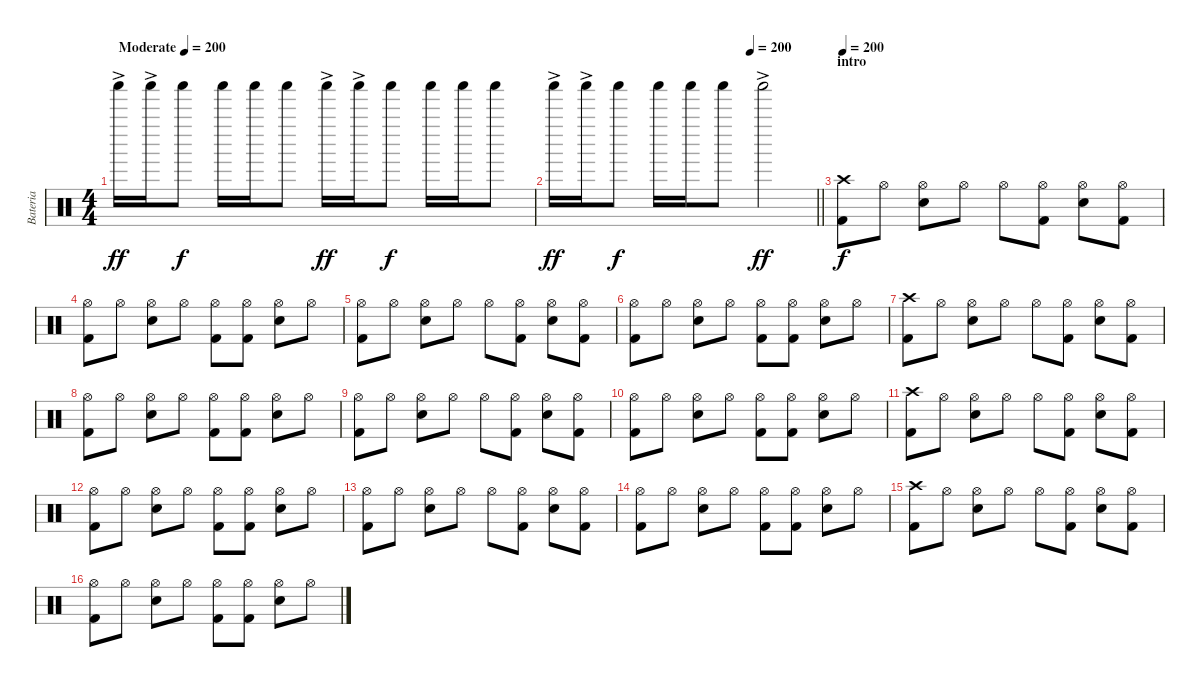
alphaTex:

\track ("Bateria" "Bateria") {instrument percussion}
\staff {score}
\articulation defaults
\ts (4 4)
\tempo (200 "Moderate")
\tempo 100
\tempo (200 "Moderate")
\clef neutral
\ks c "Shaker (hit)"{ac}.16{dy ff volume 7} "Shaker (hit)"{ac}.16 "Shaker (hit)".8{dy f} "Shaker (hit)".16 "Shaker (hit)".16 "Shaker (hit)".8 "Shaker (hit)"{ac}.16{dy ff} "Shaker (hit)"{ac}.16 "Shaker (hit)".8{dy f} "Shaker (hit)".16 "Shaker (hit)".16 "Shaker (hit)".8
|
\tempo (200 0.75)
\barLineRight lightlight "Shaker (hit)"{ac}.16{dy ff} "Shaker (hit)"{ac}.16 "Shaker (hit)".8{dy f} "Shaker (hit)".16 "Shaker (hit)".16 "Shaker (hit)".8 "Shaker (hit)"{ac}.2{dy ff}
|
\section ("" "intro")
\tempo 200
("Crash high (hit)" "Kick (hit) 2").8{dy f volume 13} "Hi-Hat (open)".8 ("Hi-Hat (open)" "Snare (hit) 2").8 "Hi-Hat (open)".8 "Hi-Hat (open)".8 ("Hi-Hat (open)" "Kick (hit) 2").8 ("Hi-Hat (open)" "Snare (hit) 2").8 ("Hi-Hat (open)" "Kick (hit) 2").8 |
("Hi-Hat (open)" "Kick (hit) 2").8 "Hi-Hat (open)".8 ("Hi-Hat (open)" "Snare (hit) 2").8 "Hi-Hat (open)".8 ("Hi-Hat (open)" "Kick (hit) 2").8 ("Hi-Hat (open)" "Kick (hit) 2").8 ("Hi-Hat (open)" "Snare (hit) 2").8 "Hi-Hat (open)".8 |
("Hi-Hat (open)" "Kick (hit) 2").8 "Hi-Hat (open)".8 ("Hi-Hat (open)" "Snare (hit) 2").8 "Hi-Hat (open)".8 "Hi-Hat (open)".8 ("Hi-Hat (open)" "Kick (hit) 2").8 ("Hi-Hat (open)" "Snare (hit) 2").8 ("Hi-Hat (open)" "Kick (hit) 2").8 |
("Hi-Hat (open)" "Kick (hit) 2").8 "Hi-Hat (open)".8 ("Hi-Hat (open)" "Snare (hit) 2").8 "Hi-Hat (open)".8 ("Hi-Hat (open)" "Kick (hit) 2").8 ("Hi-Hat (open)" "Kick (hit) 2").8 ("Hi-Hat (open)" "Snare (hit) 2").8 "Hi-Hat (open)".8 |
("Crash high (hit)" "Kick (hit) 2").8 "Hi-Hat (open)".8 ("Hi-Hat (open)" "Snare (hit) 2").8 "Hi-Hat (open)".8 "Hi-Hat (open)".8 ("Hi-Hat (open)" "Kick (hit) 2").8 ("Hi-Hat (open)" "Snare (hit) 2").8 ("Hi-Hat (open)" "Kick (hit) 2").8 |
("Hi-Hat (open)" "Kick (hit) 2").8 "Hi-Hat (open)".8 ("Hi-Hat (open)" "Snare (hit) 2").8 "Hi-Hat (open)".8 ("Hi-Hat (open)" "Kick (hit) 2").8 ("Hi-Hat (open)" "Kick (hit) 2").8 ("Hi-Hat (open)" "Snare (hit) 2").8 "Hi-Hat (open)".8 |
("Hi-Hat (open)" "Kick (hit) 2").8 "Hi-Hat (open)".8 ("Hi-Hat (open)" "Snare (hit) 2").8 "Hi-Hat (open)".8 "Hi-Hat (open)".8 ("Hi-Hat (open)" "Kick (hit) 2").8 ("Hi-Hat (open)" "Snare (hit) 2").8 ("Hi-Hat (open)" "Kick (hit) 2").8 |
("Hi-Hat (open)" "Kick (hit) 2").8 "Hi-Hat (open)".8 ("Hi-Hat (open)" "Snare (hit) 2").8 "Hi-Hat (open)".8 ("Hi-Hat (open)" "Kick (hit) 2").8 ("Hi-Hat (open)" "Kick (hit) 2").8 ("Hi-Hat (open)" "Snare (hit) 2").8 "Hi-Hat (open)".8 |
("Crash high (hit)" "Kick (hit) 2").8 "Hi-Hat (open)".8 ("Hi-Hat (open)" "Snare (hit) 2").8 "Hi-Hat (open)".8 "Hi-Hat (open)".8 ("Hi-Hat (open)" "Kick (hit) 2").8 ("Hi-Hat (open)" "Snare (hit) 2").8 ("Hi-Hat (open)" "Kick (hit) 2").8 |
("Hi-Hat (open)" "Kick (hit) 2").8 "Hi-Hat (open)".8 ("Hi-Hat (open)" "Snare (hit) 2").8 "Hi-Hat (open)".8 ("Hi-Hat (open)" "Kick (hit) 2").8 ("Hi-Hat (open)" "Kick (hit) 2").8 ("Hi-Hat (open)" "Snare (hit) 2").8 "Hi-Hat (open)".8 |
("Hi-Hat (open)" "Kick (hit) 2").8 "Hi-Hat (open)".8 ("Hi-Hat (open)" "Snare (hit) 2").8 "Hi-Hat (open)".8 "Hi-Hat (open)".8 ("Hi-Hat (open)" "Kick (hit) 2").8 ("Hi-Hat (open)" "Snare (hit) 2").8 ("Hi-Hat (open)" "Kick (hit) 2").8 |
("Hi-Hat (open)" "Kick (hit) 2").8 "Hi-Hat (open)".8 ("Hi-Hat (open)" "Snare (hit) 2").8 "Hi-Hat (open)".8 ("Hi-Hat (open)" "Kick (hit) 2").8 ("Hi-Hat (open)" "Kick (hit) 2").8 ("Hi-Hat (open)" "Snare (hit) 2").8 "Hi-Hat (open)".8 |
("Crash high (hit)" "Kick (hit) 2").8 "Hi-Hat (open)".8 ("Hi-Hat (open)" "Snare (hit) 2").8 "Hi-Hat (open)".8 "Hi-Hat (open)".8 ("Hi-Hat (open)" "Kick (hit) 2").8 ("Hi-Hat (open)" "Snare (hit) 2").8 ("Hi-Hat (open)" "Kick (hit) 2").8 |
("Hi-Hat (open)" "Kick (hit) 2").8 "Hi-Hat (open)".8 ("Hi-Hat (open)" "Snare (hit) 2").8 "Hi-Hat (open)".8 ("Hi-Hat (open)" "Kick (hit) 2").8 ("Hi-Hat (open)" "Kick (hit) 2").8 ("Hi-Hat (open)" "Snare (hit) 2").8 "Hi-Hat (open)".8
